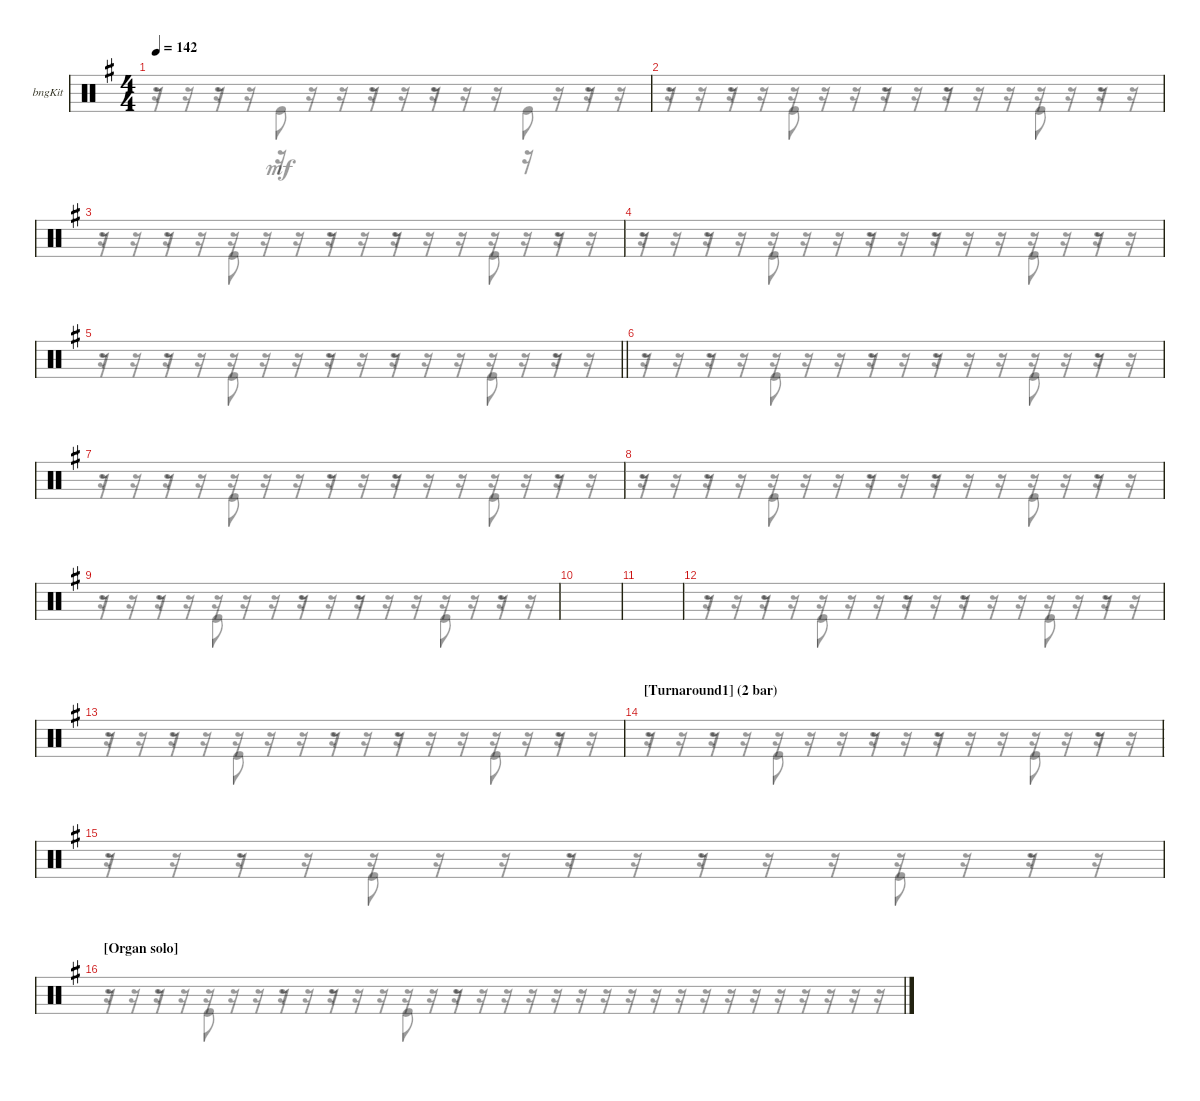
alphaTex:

\bracketExtendMode groupsimilarinstruments
\firstSystemTrackNameOrientation horizontal
\otherSystemsTrackNameOrientation horizontal
\track ("Bongos" "bngKit") {instrument percussion}
\staff {score}
\articulation defaults
\voice
\ts (4 4)
\tempo 142
\clef neutral
\ks eminor
|
|
|
|
\barLineRight lightlight
|
|
|
|
|
|
|
|
|
\section ("" "[Turnaround1] (2 bar) ")
|
|
\section ("" "[Organ solo]")
\voice
\clef neutral
\ks eminor
r.16{dy mf} r.16 r.16 r.16 r.16 r.16 r.16 r.16 r.16 r.16 r.16 r.16 r.16 r.16 r.16 r.16 |
r.16 r.16 r.16 r.16 r.16 r.16 r.16 r.16 r.16 r.16 r.16 r.16 r.16 r.16 r.16 r.16 |
r.16 r.16 r.16 r.16 r.16 r.16 r.16 r.16 r.16 r.16 r.16 r.16 r.16 r.16 r.16 r.16 |
r.16 r.16 r.16 r.16 r.16 r.16 r.16 r.16 r.16 r.16 r.16 r.16 r.16 r.16 r.16 r.16 |
\barLineRight lightlight
r.16 r.16 r.16 r.16 r.16 r.16 r.16 r.16 r.16 r.16 r.16 r.16 r.16 r.16 r.16 r.16 |
r.16 r.16 r.16 r.16 r.16 r.16 r.16 r.16 r.16 r.16 r.16 r.16 r.16 r.16 r.16 r.16 |
r.16 r.16 r.16 r.16 r.16 r.16 r.16 r.16 r.16 r.16 r.16 r.16 r.16 r.16 r.16 r.16 |
r.16 r.16 r.16 r.16 r.16 r.16 r.16 r.16 r.16 r.16 r.16 r.16 r.16 r.16 r.16 r.16 |
r.16 r.16 r.16 r.16 r.16 r.16 r.16 r.16 r.16 r.16 r.16 r.16 r.16 r.16 r.16 r.16 |
|
|
r.16 r.16 r.16 r.16 r.16 r.16 r.16 r.16 r.16 r.16 r.16 r.16 r.16 r.16 r.16 r.16 |
r.16 r.16 r.16 r.16 r.16 r.16 r.16 r.16 r.16 r.16 r.16 r.16 r.16 r.16 r.16 r.16 |
r.16 r.16 r.16 r.16 r.16 r.16 r.16 r.16 r.16 r.16 r.16 r.16 r.16 r.16 r.16 r.16 |
r.16 r.16 r.16 r.16 r.16 r.16 r.16 r.16 r.16 r.16 r.16 r.16 r.16 r.16 r.16 r.16 |
r.16 r.16 r.16 r.16 r.16 r.16 r.16 r.16 r.16 r.16 r.16 r.16 r.16 r.16 r.16 r.16
\voice
\clef neutral
\ottava regular
\simile none
\ks eminor
r.16{dy mf} r.16 r.16 r.16 r.16 r.16 r.16 r.16 r.16 r.16 r.16 r.16 r.16 r.16 r.16 r.16 |
r.16 r.16 r.16 r.16 r.16 r.16 r.16 r.16 r.16 r.16 r.16 r.16 r.16 r.16 r.16 r.16 |
r.16 r.16 r.16 r.16 r.16 r.16 r.16 r.16 r.16 r.16 r.16 r.16 r.16 r.16 r.16 r.16 |
r.16 r.16 r.16 r.16 r.16 r.16 r.16 r.16 r.16 r.16 r.16 r.16 r.16 r.16 r.16 r.16 |
\barLineRight lightlight
r.16 r.16 r.16 r.16 r.16 r.16 r.16 r.16 r.16 r.16 r.16 r.16 r.16 r.16 r.16 r.16 |
r.16 r.16 r.16 r.16 r.16 r.16 r.16 r.16 r.16 r.16 r.16 r.16 r.16 r.16 r.16 r.16 |
r.16 r.16 r.16 r.16 r.16 r.16 r.16 r.16 r.16 r.16 r.16 r.16 r.16 r.16 r.16 r.16 |
r.16 r.16 r.16 r.16 r.16 r.16 r.16 r.16 r.16 r.16 r.16 r.16 r.16 r.16 r.16 r.16 |
r.16 r.16 r.16 r.16 r.16 r.16 r.16 r.16 r.16 r.16 r.16 r.16 r.16 r.16 r.16 r.16 |
|
|
r.16 r.16 r.16 r.16 r.16 r.16 r.16 r.16 r.16 r.16 r.16 r.16 r.16 r.16 r.16 r.16 |
r.16 r.16 r.16 r.16 r.16 r.16 r.16 r.16 r.16 r.16 r.16 r.16 r.16 r.16 r.16 r.16 |
r.16 r.16 r.16 r.16 r.16 r.16 r.16 r.16 r.16 r.16 r.16 r.16 r.16 r.16 r.16 r.16 |
r.16 r.16 r.16 r.16 r.16 r.16 r.16 r.16 r.16 r.16 r.16 r.16 r.16 r.16 r.16 r.16 |
r.16 r.16 r.16 r.16 r.16 r.16 r.16 r.16 r.16 r.16 r.16 r.16 r.16 r.16 r.16 r.16
\voice
\clef neutral
\ottava regular
\simile none
\ks eminor
r.8{dy mf} r.8 "Kick (hit)".8 r.16 r.8 r.8 r.16 "Kick (hit)".8 r.8 |
r.8 r.8 "Kick (hit)".8 r.16 r.8 r.8 r.16 "Kick (hit)".8 r.8 |
r.8 r.8 "Kick (hit)".8 r.16 r.8 r.8 r.16 "Kick (hit)".8 r.8 |
r.8 r.8 "Kick (hit)".8 r.16 r.8 r.8 r.16 "Kick (hit)".8 r.8 |
\barLineRight lightlight
r.8 r.8 "Kick (hit)".8 r.16 r.8 r.8 r.16 "Kick (hit)".8 r.8 |
r.8 r.8 "Kick (hit)".8 r.16 r.8 r.8 r.16 "Kick (hit)".8 r.8 |
r.8 r.8 "Kick (hit)".8 r.16 r.8 r.8 r.16 "Kick (hit)".8 r.8 |
r.8 r.8 "Kick (hit)".8 r.16 r.8 r.8 r.16 "Kick (hit)".8 r.8 |
r.8 r.8 "Kick (hit)".8 r.16 r.8 r.8 r.16 "Kick (hit)".8 r.8 |
|
|
r.8 r.8 "Kick (hit)".8 r.16 r.8 r.8 r.16 "Kick (hit)".8 r.8 |
r.8 r.8 "Kick (hit)".8 r.16 r.8 r.8 r.16 "Kick (hit)".8 r.8 |
r.8 r.8 "Kick (hit)".8 r.16 r.8 r.8 r.16 "Kick (hit)".8 r.8 |
r.8 r.8 "Kick (hit)".8 r.16 r.8 r.8 r.16 "Kick (hit)".8 r.8 |
r.8 r.8 "Kick (hit)".8 r.16 r.8 r.8 r.16 "Kick (hit)".8 r.8
